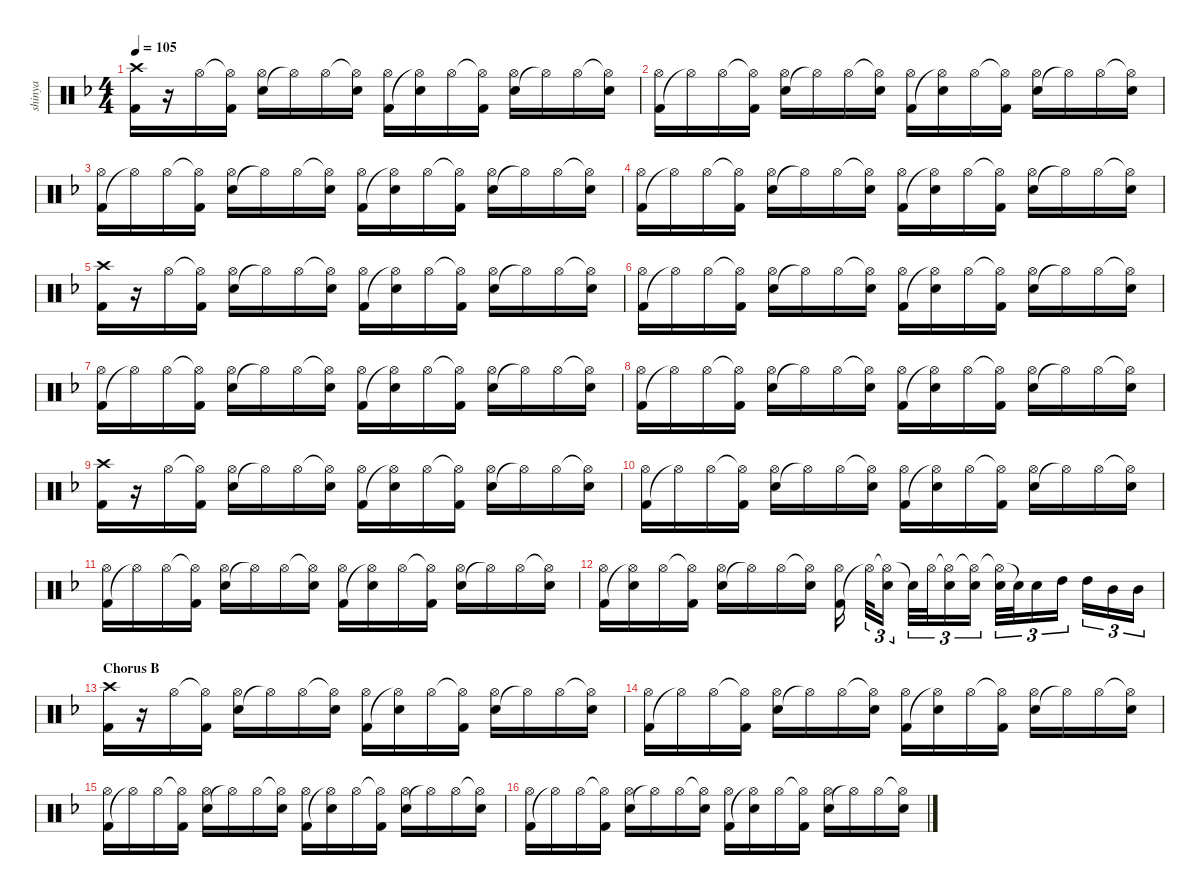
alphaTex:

\defaultSystemsLayout 4
\hideDynamics
\bracketExtendMode nobrackets
\otherSystemsTrackNameOrientation horizontal
\track ("Shinya" "shinya") {defaultSystemsLayout 4 instrument percussion}
\staff {score}
\articulation defaults
\ts (4 4)
\tempo 105
\clef neutral
\scale
1.06758
\ks dminor
("Kick (hit) 2"{acc forcenatural} "Crash high (hit)"{acc #}).16{dy fff} r.16 "Hi-Hat (open)"{acc #}.16 ("Hi-Hat (open)"{t acc #} "Kick (hit) 2"{acc forcenatural}).16 ("Snare (hit) 2"{acc forcenatural} "Hi-Hat (open)"{acc #}).16 "Hi-Hat (open)"{t acc #}.16 "Hi-Hat (open)"{acc #}.16 ("Hi-Hat (open)"{t acc #} "Snare (hit) 2"{acc forcenatural}).16 ("Kick (hit) 2"{acc forcenatural} "Hi-Hat (open)"{acc #}).16 ("Hi-Hat (open)"{t acc #} "Snare (hit) 2"{acc forcenatural}).16 "Hi-Hat (open)"{acc #}.16 ("Hi-Hat (open)"{t acc #} "Kick (hit) 2"{acc forcenatural}).16 ("Snare (hit) 2"{acc forcenatural} "Hi-Hat (open)"{acc #}).16 "Hi-Hat (open)"{t acc #}.16 "Hi-Hat (open)"{acc #}.16 ("Hi-Hat (open)"{t acc #} "Snare (hit) 2"{acc forcenatural}).16 |
\scale
0.977474 ("Kick (hit) 2"{acc forcenatural} "Hi-Hat (open)"{acc #}).16 "Hi-Hat (open)"{t acc #}.16 "Hi-Hat (open)"{acc #}.16 ("Hi-Hat (open)"{t acc #} "Kick (hit) 2"{acc forcenatural}).16 ("Snare (hit) 2"{acc forcenatural} "Hi-Hat (open)"{acc #}).16 "Hi-Hat (open)"{t acc #}.16 "Hi-Hat (open)"{acc #}.16 ("Hi-Hat (open)"{t acc #} "Snare (hit) 2"{acc forcenatural}).16 ("Kick (hit) 2"{acc forcenatural} "Hi-Hat (open)"{acc #}).16 ("Hi-Hat (open)"{t acc #} "Snare (hit) 2"{acc forcenatural}).16 "Hi-Hat (open)"{acc #}.16 ("Hi-Hat (open)"{t acc #} "Kick (hit) 2"{acc forcenatural}).16 ("Snare (hit) 2"{acc forcenatural} "Hi-Hat (open)"{acc #}).16 "Hi-Hat (open)"{t acc #}.16 "Hi-Hat (open)"{acc #}.16 ("Hi-Hat (open)"{t acc #} "Snare (hit) 2"{acc forcenatural}).16 |
\scale
0.977474 ("Kick (hit) 2"{acc forcenatural} "Hi-Hat (open)"{acc #}).16 "Hi-Hat (open)"{t acc #}.16 "Hi-Hat (open)"{acc #}.16 ("Hi-Hat (open)"{t acc #} "Kick (hit) 2"{acc forcenatural}).16 ("Snare (hit) 2"{acc forcenatural} "Hi-Hat (open)"{acc #}).16 "Hi-Hat (open)"{t acc #}.16 "Hi-Hat (open)"{acc #}.16 ("Hi-Hat (open)"{t acc #} "Snare (hit) 2"{acc forcenatural}).16 ("Kick (hit) 2"{acc forcenatural} "Hi-Hat (open)"{acc #}).16 ("Hi-Hat (open)"{t acc #} "Snare (hit) 2"{acc forcenatural}).16 "Hi-Hat (open)"{acc #}.16 ("Hi-Hat (open)"{t acc #} "Kick (hit) 2"{acc forcenatural}).16 ("Snare (hit) 2"{acc forcenatural} "Hi-Hat (open)"{acc #}).16 "Hi-Hat (open)"{t acc #}.16 "Hi-Hat (open)"{acc #}.16 ("Hi-Hat (open)"{t acc #} "Snare (hit) 2"{acc forcenatural}).16 |
\scale
0.977474 ("Kick (hit) 2"{acc forcenatural} "Hi-Hat (open)"{acc #}).16 "Hi-Hat (open)"{t acc #}.16 "Hi-Hat (open)"{acc #}.16 ("Hi-Hat (open)"{t acc #} "Kick (hit) 2"{acc forcenatural}).16 ("Snare (hit) 2"{acc forcenatural} "Hi-Hat (open)"{acc #}).16 "Hi-Hat (open)"{t acc #}.16 "Hi-Hat (open)"{acc #}.16 ("Hi-Hat (open)"{t acc #} "Snare (hit) 2"{acc forcenatural}).16 ("Kick (hit) 2"{acc forcenatural} "Hi-Hat (open)"{acc #}).16 ("Hi-Hat (open)"{t acc #} "Snare (hit) 2"{acc forcenatural}).16 "Hi-Hat (open)"{acc #}.16 ("Hi-Hat (open)"{t acc #} "Kick (hit) 2"{acc forcenatural}).16 ("Snare (hit) 2"{acc forcenatural} "Hi-Hat (open)"{acc #}).16 "Hi-Hat (open)"{t acc #}.16 "Hi-Hat (open)"{acc #}.16 ("Hi-Hat (open)"{t acc #} "Snare (hit) 2"{acc forcenatural}).16 |
\scale
1.06758 ("Kick (hit) 2"{acc forcenatural} "Crash high (hit)"{acc #}).16 r.16 "Hi-Hat (open)"{acc #}.16 ("Hi-Hat (open)"{t acc #} "Kick (hit) 2"{acc forcenatural}).16 ("Snare (hit) 2"{acc forcenatural} "Hi-Hat (open)"{acc #}).16 "Hi-Hat (open)"{t acc #}.16 "Hi-Hat (open)"{acc #}.16 ("Hi-Hat (open)"{t acc #} "Snare (hit) 2"{acc forcenatural}).16 ("Kick (hit) 2"{acc forcenatural} "Hi-Hat (open)"{acc #}).16 ("Hi-Hat (open)"{t acc #} "Snare (hit) 2"{acc forcenatural}).16 "Hi-Hat (open)"{acc #}.16 ("Hi-Hat (open)"{t acc #} "Kick (hit) 2"{acc forcenatural}).16 ("Snare (hit) 2"{acc forcenatural} "Hi-Hat (open)"{acc #}).16 "Hi-Hat (open)"{t acc #}.16 "Hi-Hat (open)"{acc #}.16 ("Hi-Hat (open)"{t acc #} "Snare (hit) 2"{acc forcenatural}).16 |
\scale
0.977474 ("Kick (hit) 2"{acc forcenatural} "Hi-Hat (open)"{acc #}).16 "Hi-Hat (open)"{t acc #}.16 "Hi-Hat (open)"{acc #}.16 ("Hi-Hat (open)"{t acc #} "Kick (hit) 2"{acc forcenatural}).16 ("Snare (hit) 2"{acc forcenatural} "Hi-Hat (open)"{acc #}).16 "Hi-Hat (open)"{t acc #}.16 "Hi-Hat (open)"{acc #}.16 ("Hi-Hat (open)"{t acc #} "Snare (hit) 2"{acc forcenatural}).16 ("Kick (hit) 2"{acc forcenatural} "Hi-Hat (open)"{acc #}).16 ("Hi-Hat (open)"{t acc #} "Snare (hit) 2"{acc forcenatural}).16 "Hi-Hat (open)"{acc #}.16 ("Hi-Hat (open)"{t acc #} "Kick (hit) 2"{acc forcenatural}).16 ("Snare (hit) 2"{acc forcenatural} "Hi-Hat (open)"{acc #}).16 "Hi-Hat (open)"{t acc #}.16 "Hi-Hat (open)"{acc #}.16 ("Hi-Hat (open)"{t acc #} "Snare (hit) 2"{acc forcenatural}).16 |
\scale
0.977474 ("Kick (hit) 2"{acc forcenatural} "Hi-Hat (open)"{acc #}).16 "Hi-Hat (open)"{t acc #}.16 "Hi-Hat (open)"{acc #}.16 ("Hi-Hat (open)"{t acc #} "Kick (hit) 2"{acc forcenatural}).16 ("Snare (hit) 2"{acc forcenatural} "Hi-Hat (open)"{acc #}).16 "Hi-Hat (open)"{t acc #}.16 "Hi-Hat (open)"{acc #}.16 ("Hi-Hat (open)"{t acc #} "Snare (hit) 2"{acc forcenatural}).16 ("Kick (hit) 2"{acc forcenatural} "Hi-Hat (open)"{acc #}).16 ("Hi-Hat (open)"{t acc #} "Snare (hit) 2"{acc forcenatural}).16 "Hi-Hat (open)"{acc #}.16 ("Hi-Hat (open)"{t acc #} "Kick (hit) 2"{acc forcenatural}).16 ("Snare (hit) 2"{acc forcenatural} "Hi-Hat (open)"{acc #}).16 "Hi-Hat (open)"{t acc #}.16 "Hi-Hat (open)"{acc #}.16 ("Hi-Hat (open)"{t acc #} "Snare (hit) 2"{acc forcenatural}).16 |
\scale
0.977474 ("Kick (hit) 2"{acc forcenatural} "Hi-Hat (open)"{acc #}).16 "Hi-Hat (open)"{t acc #}.16 "Hi-Hat (open)"{acc #}.16 ("Hi-Hat (open)"{t acc #} "Kick (hit) 2"{acc forcenatural}).16 ("Snare (hit) 2"{acc forcenatural} "Hi-Hat (open)"{acc #}).16 "Hi-Hat (open)"{t acc #}.16 "Hi-Hat (open)"{acc #}.16 ("Hi-Hat (open)"{t acc #} "Snare (hit) 2"{acc forcenatural}).16 ("Kick (hit) 2"{acc forcenatural} "Hi-Hat (open)"{acc #}).16 ("Hi-Hat (open)"{t acc #} "Snare (hit) 2"{acc forcenatural}).16 "Hi-Hat (open)"{acc #}.16 ("Hi-Hat (open)"{t acc #} "Kick (hit) 2"{acc forcenatural}).16 ("Snare (hit) 2"{acc forcenatural} "Hi-Hat (open)"{acc #}).16 "Hi-Hat (open)"{t acc #}.16 "Hi-Hat (open)"{acc #}.16 ("Hi-Hat (open)"{t acc #} "Snare (hit) 2"{acc forcenatural}).16 |
\scale
1.06316 ("Kick (hit) 2"{acc forcenatural} "Crash high (hit)"{acc #}).16 r.16 "Hi-Hat (open)"{acc #}.16 ("Hi-Hat (open)"{t acc #} "Kick (hit) 2"{acc forcenatural}).16 ("Snare (hit) 2"{acc forcenatural} "Hi-Hat (open)"{acc #}).16 "Hi-Hat (open)"{t acc #}.16 "Hi-Hat (open)"{acc #}.16 ("Hi-Hat (open)"{t acc #} "Snare (hit) 2"{acc forcenatural}).16 ("Kick (hit) 2"{acc forcenatural} "Hi-Hat (open)"{acc #}).16 ("Hi-Hat (open)"{t acc #} "Snare (hit) 2"{acc forcenatural}).16 "Hi-Hat (open)"{acc #}.16 ("Hi-Hat (open)"{t acc #} "Kick (hit) 2"{acc forcenatural}).16 ("Snare (hit) 2"{acc forcenatural} "Hi-Hat (open)"{acc #}).16 "Hi-Hat (open)"{t acc #}.16 "Hi-Hat (open)"{acc #}.16 ("Hi-Hat (open)"{t acc #} "Snare (hit) 2"{acc forcenatural}).16 |
\scale
0.973053 ("Kick (hit) 2"{acc forcenatural} "Hi-Hat (open)"{acc #}).16 "Hi-Hat (open)"{t acc #}.16 "Hi-Hat (open)"{acc #}.16 ("Hi-Hat (open)"{t acc #} "Kick (hit) 2"{acc forcenatural}).16 ("Snare (hit) 2"{acc forcenatural} "Hi-Hat (open)"{acc #}).16 "Hi-Hat (open)"{t acc #}.16 "Hi-Hat (open)"{acc #}.16 ("Hi-Hat (open)"{t acc #} "Snare (hit) 2"{acc forcenatural}).16 ("Kick (hit) 2"{acc forcenatural} "Hi-Hat (open)"{acc #}).16 ("Hi-Hat (open)"{t acc #} "Snare (hit) 2"{acc forcenatural}).16 "Hi-Hat (open)"{acc #}.16 ("Hi-Hat (open)"{t acc #} "Kick (hit) 2"{acc forcenatural}).16 ("Snare (hit) 2"{acc forcenatural} "Hi-Hat (open)"{acc #}).16 "Hi-Hat (open)"{t acc #}.16 "Hi-Hat (open)"{acc #}.16 ("Hi-Hat (open)"{t acc #} "Snare (hit) 2"{acc forcenatural}).16 |
\scale
0.973053 ("Kick (hit) 2"{acc forcenatural} "Hi-Hat (open)"{acc #}).16 "Hi-Hat (open)"{t acc #}.16 "Hi-Hat (open)"{acc #}.16 ("Hi-Hat (open)"{t acc #} "Kick (hit) 2"{acc forcenatural}).16 ("Snare (hit) 2"{acc forcenatural} "Hi-Hat (open)"{acc #}).16 "Hi-Hat (open)"{t acc #}.16 "Hi-Hat (open)"{acc #}.16 ("Hi-Hat (open)"{t acc #} "Snare (hit) 2"{acc forcenatural}).16 ("Kick (hit) 2"{acc forcenatural} "Hi-Hat (open)"{acc #}).16 ("Hi-Hat (open)"{t acc #} "Snare (hit) 2"{acc forcenatural}).16 "Hi-Hat (open)"{acc #}.16 ("Hi-Hat (open)"{t acc #} "Kick (hit) 2"{acc forcenatural}).16 ("Snare (hit) 2"{acc forcenatural} "Hi-Hat (open)"{acc #}).16 "Hi-Hat (open)"{t acc #}.16 "Hi-Hat (open)"{acc #}.16 ("Hi-Hat (open)"{t acc #} "Snare (hit) 2"{acc forcenatural}).16 |
\scale
0.990737 ("Kick (hit) 2"{acc forcenatural} "Hi-Hat (open)"{acc #}).16 ("Hi-Hat (open)"{t acc #} "Snare (hit) 2"{acc forcenatural}).16 "Hi-Hat (open)"{acc #}.16 ("Hi-Hat (open)"{t acc #} "Kick (hit) 2"{acc forcenatural}).16 ("Snare (hit) 2"{acc forcenatural} "Hi-Hat (open)"{acc #}).16 "Hi-Hat (open)"{t acc #}.16 "Hi-Hat (open)"{acc #}.16 ("Hi-Hat (open)"{t acc #} "Snare (hit) 2"{acc forcenatural}).16 ("Kick (hit) 2"{acc forcenatural} "Hi-Hat (open)"{acc #}).16 "Hi-Hat (open)"{t acc #}.32{tu (3 2)} ("Hi-Hat (open)"{t acc #} "Snare (hit) 2"{acc forcenatural}).16{tu (3 2)} "Snare (hit) 2"{t acc forcenatural}.32{tu (3 2)} "Hi-Hat (open)"{acc #}.32{tu (3 2)} ("Hi-Hat (open)"{t acc #} "Snare (hit) 2"{acc forcenatural}).16{tu (3 2)} ("Hi-Hat (open)"{t acc #} "Snare (hit) 2"{acc forcenatural}).16{tu (3 2)} ("Hi-Hat (open)"{t acc #} "Snare (hit) 2"{acc forcenatural}).32{tu (3 2)} "Snare (hit) 2"{t acc forcenatural}.32{tu (3 2)} "Snare (hit) 2"{acc forcenatural}.16{tu (3 2)} "High Tom (hit)"{acc forcenatural}.16{tu (3 2)} "High Tom (hit)"{acc forcenatural}.16{tu (3 2)} "Mid Tom (hit)"{acc forcenatural}.16{tu (3 2)} "Mid Tom (hit)"{acc forcenatural}.16{tu (3 2)} |
\section ("" "Chorus B")
\scale
1.06758 ("Kick (hit) 2"{acc forcenatural} "Crash high (hit)"{acc #}).16 r.16 "Hi-Hat (open)"{acc #}.16 ("Hi-Hat (open)"{t acc #} "Kick (hit) 2"{acc forcenatural}).16 ("Snare (hit) 2"{acc forcenatural} "Hi-Hat (open)"{acc #}).16 "Hi-Hat (open)"{t acc #}.16 "Hi-Hat (open)"{acc #}.16 ("Hi-Hat (open)"{t acc #} "Snare (hit) 2"{acc forcenatural}).16 ("Kick (hit) 2"{acc forcenatural} "Hi-Hat (open)"{acc #}).16 ("Hi-Hat (open)"{t acc #} "Snare (hit) 2"{acc forcenatural}).16 "Hi-Hat (open)"{acc #}.16 ("Hi-Hat (open)"{t acc #} "Kick (hit) 2"{acc forcenatural}).16 ("Snare (hit) 2"{acc forcenatural} "Hi-Hat (open)"{acc #}).16 "Hi-Hat (open)"{t acc #}.16 "Hi-Hat (open)"{acc #}.16 ("Hi-Hat (open)"{t acc #} "Snare (hit) 2"{acc forcenatural}).16 |
\scale
0.977474 ("Kick (hit) 2"{acc forcenatural} "Hi-Hat (open)"{acc #}).16 "Hi-Hat (open)"{t acc #}.16 "Hi-Hat (open)"{acc #}.16 ("Hi-Hat (open)"{t acc #} "Kick (hit) 2"{acc forcenatural}).16 ("Snare (hit) 2"{acc forcenatural} "Hi-Hat (open)"{acc #}).16 "Hi-Hat (open)"{t acc #}.16 "Hi-Hat (open)"{acc #}.16 ("Hi-Hat (open)"{t acc #} "Snare (hit) 2"{acc forcenatural}).16 ("Kick (hit) 2"{acc forcenatural} "Hi-Hat (open)"{acc #}).16 ("Hi-Hat (open)"{t acc #} "Snare (hit) 2"{acc forcenatural}).16 "Hi-Hat (open)"{acc #}.16 ("Hi-Hat (open)"{t acc #} "Kick (hit) 2"{acc forcenatural}).16 ("Snare (hit) 2"{acc forcenatural} "Hi-Hat (open)"{acc #}).16 "Hi-Hat (open)"{t acc #}.16 "Hi-Hat (open)"{acc #}.16 ("Hi-Hat (open)"{t acc #} "Snare (hit) 2"{acc forcenatural}).16 |
\scale
0.977474 ("Kick (hit) 2"{acc forcenatural} "Hi-Hat (open)"{acc #}).16 "Hi-Hat (open)"{t acc #}.16 "Hi-Hat (open)"{acc #}.16 ("Hi-Hat (open)"{t acc #} "Kick (hit) 2"{acc forcenatural}).16 ("Snare (hit) 2"{acc forcenatural} "Hi-Hat (open)"{acc #}).16 "Hi-Hat (open)"{t acc #}.16 "Hi-Hat (open)"{acc #}.16 ("Hi-Hat (open)"{t acc #} "Snare (hit) 2"{acc forcenatural}).16 ("Kick (hit) 2"{acc forcenatural} "Hi-Hat (open)"{acc #}).16 ("Hi-Hat (open)"{t acc #} "Snare (hit) 2"{acc forcenatural}).16 "Hi-Hat (open)"{acc #}.16 ("Hi-Hat (open)"{t acc #} "Kick (hit) 2"{acc forcenatural}).16 ("Snare (hit) 2"{acc forcenatural} "Hi-Hat (open)"{acc #}).16 "Hi-Hat (open)"{t acc #}.16 "Hi-Hat (open)"{acc #}.16 ("Hi-Hat (open)"{t acc #} "Snare (hit) 2"{acc forcenatural}).16 |
\scale
0.977474 ("Kick (hit) 2"{acc forcenatural} "Hi-Hat (open)"{acc #}).16 "Hi-Hat (open)"{t acc #}.16 "Hi-Hat (open)"{acc #}.16 ("Hi-Hat (open)"{t acc #} "Kick (hit) 2"{acc forcenatural}).16 ("Snare (hit) 2"{acc forcenatural} "Hi-Hat (open)"{acc #}).16 "Hi-Hat (open)"{t acc #}.16 "Hi-Hat (open)"{acc #}.16 ("Hi-Hat (open)"{t acc #} "Snare (hit) 2"{acc forcenatural}).16 ("Kick (hit) 2"{acc forcenatural} "Hi-Hat (open)"{acc #}).16 ("Hi-Hat (open)"{t acc #} "Snare (hit) 2"{acc forcenatural}).16 "Hi-Hat (open)"{acc #}.16 ("Hi-Hat (open)"{t acc #} "Kick (hit) 2"{acc forcenatural}).16 ("Snare (hit) 2"{acc forcenatural} "Hi-Hat (open)"{acc #}).16 "Hi-Hat (open)"{t acc #}.16 "Hi-Hat (open)"{acc #}.16 ("Hi-Hat (open)"{t acc #} "Snare (hit) 2"{acc forcenatural}).16
